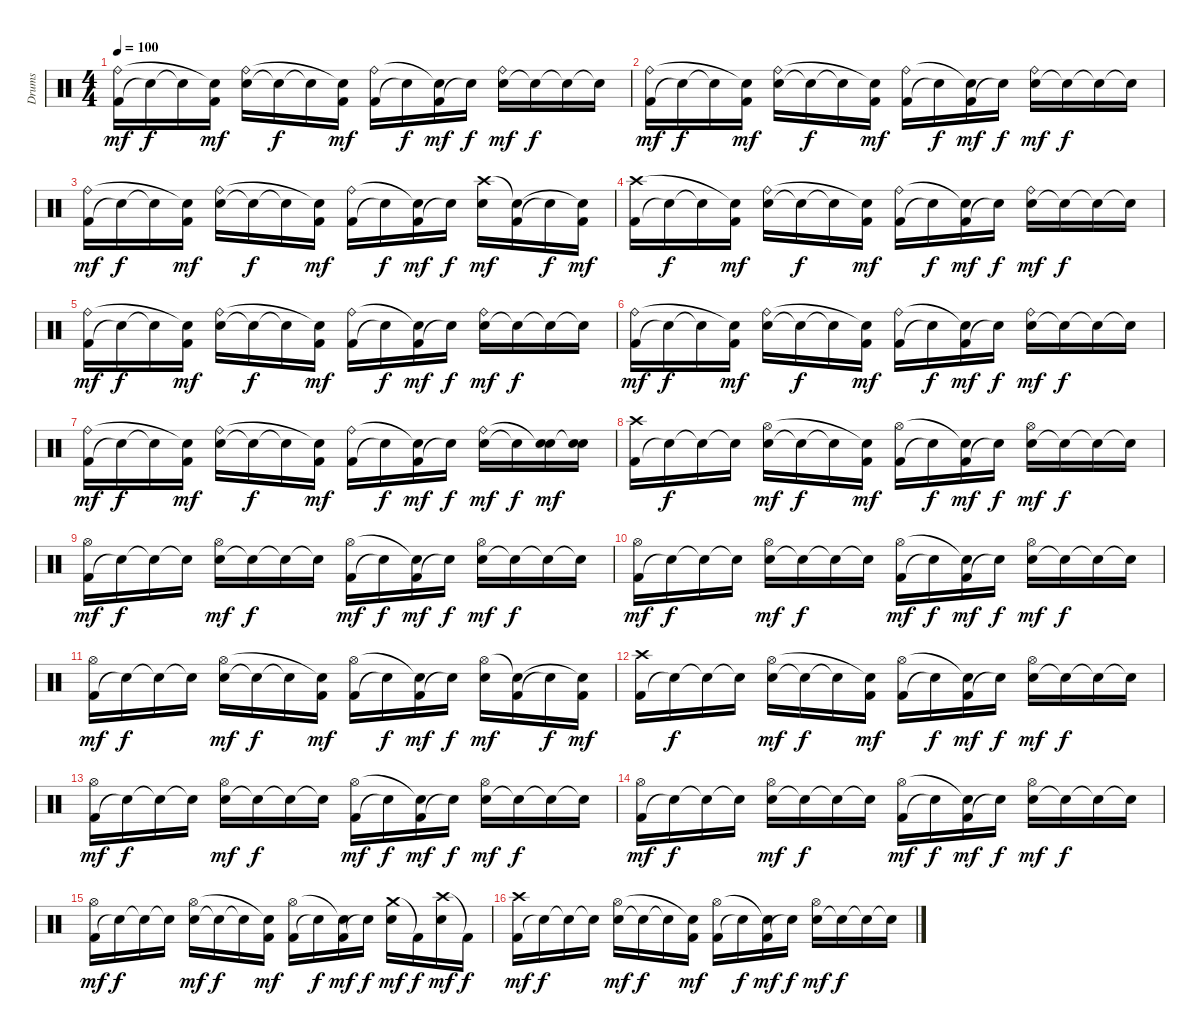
\track ("Drums" "Drums") {instrument percussion}
\staff {score}
\articulation defaults
\ts (4 4)
\tempo 100
\clef neutral
\ks c
("Kick (hit) 2" "Ride (bell)").16{dy mf} "Snare (hit)"{t}.16{dy f} "Snare (hit)"{t}.16 ("Kick (hit) 2" "Snare (hit)"{t}).16{dy mf} ("Snare (hit) 2" "Ride (bell)").16 "Snare (hit)"{t}.16{dy f} "Snare (hit)"{t}.16 ("Kick (hit) 2" "Snare (hit)"{t}).16{dy mf} ("Kick (hit) 2" "Ride (bell)").16 "Snare (hit)"{t}.16{dy f} ("Kick (hit) 2" "Snare (hit)"{t}).16{dy mf} "Snare (hit)"{t}.16{dy f} ("Snare (hit) 2" "Ride (bell)").16{dy mf} "Snare (hit)"{t}.16{dy f} "Snare (hit)"{t}.16 "Snare (hit)"{t}.16 |
("Kick (hit) 2" "Ride (bell)").16{dy mf} "Snare (hit)"{t}.16{dy f} "Snare (hit)"{t}.16 ("Kick (hit) 2" "Snare (hit)"{t}).16{dy mf} ("Snare (hit) 2" "Ride (bell)").16 "Snare (hit)"{t}.16{dy f} "Snare (hit)"{t}.16 ("Kick (hit) 2" "Snare (hit)"{t}).16{dy mf} ("Kick (hit) 2" "Ride (bell)").16 "Snare (hit)"{t}.16{dy f} ("Kick (hit) 2" "Snare (hit)"{t}).16{dy mf} "Snare (hit)"{t}.16{dy f} ("Snare (hit) 2" "Ride (bell)").16{dy mf} "Snare (hit)"{t}.16{dy f} "Snare (hit)"{t}.16 "Snare (hit)"{t}.16 |
("Kick (hit) 2" "Ride (bell)").16{dy mf} "Snare (hit)"{t}.16{dy f} "Snare (hit)"{t}.16 ("Kick (hit) 2" "Snare (hit)"{t}).16{dy mf} ("Snare (hit) 2" "Ride (bell)").16 "Snare (hit)"{t}.16{dy f} "Snare (hit)"{t}.16 ("Kick (hit) 2" "Snare (hit)"{t}).16{dy mf} ("Kick (hit) 2" "Ride (bell)").16 "Snare (hit)"{t}.16{dy f} ("Kick (hit) 2" "Snare (hit)"{t}).16{dy mf} "Snare (hit)"{t}.16{dy f} ("Snare (hit) 2" "Crash high (hit)").16{dy mf} ("Kick (hit) 2" "Snare (hit)"{t}).16 "Snare (hit)"{t}.16{dy f} ("Kick (hit) 2" "Snare (hit)"{t}).16{dy mf} |
("Kick (hit) 2" "Crash high (hit)").16 "Snare (hit)"{t}.16{dy f} "Snare (hit)"{t}.16 ("Kick (hit) 2" "Snare (hit)"{t}).16{dy mf} ("Snare (hit) 2" "Ride (bell)").16 "Snare (hit)"{t}.16{dy f} "Snare (hit)"{t}.16 ("Kick (hit) 2" "Snare (hit)"{t}).16{dy mf} ("Kick (hit) 2" "Ride (bell)").16 "Snare (hit)"{t}.16{dy f} ("Kick (hit) 2" "Snare (hit)"{t}).16{dy mf} "Snare (hit)"{t}.16{dy f} ("Snare (hit) 2" "Ride (bell)").16{dy mf} "Snare (hit)"{t}.16{dy f} "Snare (hit)"{t}.16 "Snare (hit)"{t}.16 |
("Kick (hit) 2" "Ride (bell)").16{dy mf} "Snare (hit)"{t}.16{dy f} "Snare (hit)"{t}.16 ("Kick (hit) 2" "Snare (hit)"{t}).16{dy mf} ("Snare (hit) 2" "Ride (bell)").16 "Snare (hit)"{t}.16{dy f} "Snare (hit)"{t}.16 ("Kick (hit) 2" "Snare (hit)"{t}).16{dy mf} ("Kick (hit) 2" "Ride (bell)").16 "Snare (hit)"{t}.16{dy f} ("Kick (hit) 2" "Snare (hit)"{t}).16{dy mf} "Snare (hit)"{t}.16{dy f} ("Snare (hit) 2" "Ride (bell)").16{dy mf} "Snare (hit)"{t}.16{dy f} "Snare (hit)"{t}.16 "Snare (hit)"{t}.16 |
("Kick (hit) 2" "Ride (bell)").16{dy mf} "Snare (hit)"{t}.16{dy f} "Snare (hit)"{t}.16 ("Kick (hit) 2" "Snare (hit)"{t}).16{dy mf} ("Snare (hit) 2" "Ride (bell)").16 "Snare (hit)"{t}.16{dy f} "Snare (hit)"{t}.16 ("Kick (hit) 2" "Snare (hit)"{t}).16{dy mf} ("Kick (hit) 2" "Ride (bell)").16 "Snare (hit)"{t}.16{dy f} ("Kick (hit) 2" "Snare (hit)"{t}).16{dy mf} "Snare (hit)"{t}.16{dy f} ("Snare (hit) 2" "Ride (bell)").16{dy mf} "Snare (hit)"{t}.16{dy f} "Snare (hit)"{t}.16 "Snare (hit)"{t}.16 |
("Kick (hit) 2" "Ride (bell)").16{dy mf} "Snare (hit)"{t}.16{dy f} "Snare (hit)"{t}.16 ("Kick (hit) 2" "Snare (hit)"{t}).16{dy mf} ("Snare (hit) 2" "Ride (bell)").16 "Snare (hit)"{t}.16{dy f} "Snare (hit)"{t}.16 ("Kick (hit) 2" "Snare (hit)"{t}).16{dy mf} ("Kick (hit) 2" "Ride (bell)").16 "Snare (hit)"{t}.16{dy f} ("Kick (hit) 2" "Snare (hit)"{t}).16{dy mf} "Snare (hit)"{t}.16{dy f} ("Snare (hit) 2" "Ride (bell)").16{dy mf} "Snare (hit)"{t}.16{dy f} ("Snare (hit) 2" "Snare (hit)"{t}).16{dy mf} ("Snare (hit) 2" "Snare (hit)"{t}).16 |
("Kick (hit) 2" "Crash high (hit)").16 "Snare (hit)"{t}.16{dy f} "Snare (hit)"{t}.16 "Snare (hit)"{t}.16 ("Snare (hit) 2" "Hi-Hat (open)").16{dy mf} "Snare (hit)"{t}.16{dy f} "Snare (hit)"{t}.16 ("Kick (hit) 2" "Snare (hit)"{t}).16{dy mf} ("Kick (hit) 2" "Hi-Hat (open)").16 "Snare (hit)"{t}.16{dy f} ("Kick (hit) 2" "Snare (hit)"{t}).16{dy mf} "Snare (hit)"{t}.16{dy f} ("Snare (hit) 2" "Hi-Hat (open)").16{dy mf} "Snare (hit)"{t}.16{dy f} "Snare (hit)"{t}.16 "Snare (hit)"{t}.16 |
("Kick (hit) 2" "Hi-Hat (open)").16{dy mf} "Snare (hit)"{t}.16{dy f} "Snare (hit)"{t}.16 "Snare (hit)"{t}.16 ("Snare (hit) 2" "Hi-Hat (open)").16{dy mf} "Snare (hit)"{t}.16{dy f} "Snare (hit)"{t}.16 "Snare (hit)"{t}.16 ("Kick (hit) 2" "Hi-Hat (open)").16{dy mf} "Snare (hit)"{t}.16{dy f} ("Kick (hit) 2" "Snare (hit)"{t}).16{dy mf} "Snare (hit)"{t}.16{dy f} ("Snare (hit) 2" "Hi-Hat (open)").16{dy mf} "Snare (hit)"{t}.16{dy f} "Snare (hit)"{t}.16 "Snare (hit)"{t}.16 |
("Kick (hit) 2" "Hi-Hat (open)").16{dy mf} "Snare (hit)"{t}.16{dy f} "Snare (hit)"{t}.16 "Snare (hit)"{t}.16 ("Snare (hit) 2" "Hi-Hat (open)").16{dy mf} "Snare (hit)"{t}.16{dy f} "Snare (hit)"{t}.16 "Snare (hit)"{t}.16 ("Kick (hit) 2" "Hi-Hat (open)").16{dy mf} "Snare (hit)"{t}.16{dy f} ("Kick (hit) 2" "Snare (hit)"{t}).16{dy mf} "Snare (hit)"{t}.16{dy f} ("Snare (hit) 2" "Hi-Hat (open)").16{dy mf} "Snare (hit)"{t}.16{dy f} "Snare (hit)"{t}.16 "Snare (hit)"{t}.16 |
("Kick (hit) 2" "Hi-Hat (open)").16{dy mf} "Snare (hit)"{t}.16{dy f} "Snare (hit)"{t}.16 "Snare (hit)"{t}.16 ("Snare (hit) 2" "Hi-Hat (open)").16{dy mf} "Snare (hit)"{t}.16{dy f} "Snare (hit)"{t}.16 ("Kick (hit) 2" "Snare (hit)"{t}).16{dy mf} ("Kick (hit) 2" "Hi-Hat (open)").16 "Snare (hit)"{t}.16{dy f} ("Kick (hit) 2" "Snare (hit)"{t}).16{dy mf} "Snare (hit)"{t}.16{dy f} ("Snare (hit) 2" "Hi-Hat (open)").16{dy mf} ("Kick (hit) 2" "Snare (hit)"{t}).16 "Snare (hit)"{t}.16{dy f} ("Kick (hit) 2" "Snare (hit)"{t}).16{dy mf} |
("Kick (hit) 2" "Crash high (hit)").16 "Snare (hit)"{t}.16{dy f} "Snare (hit)"{t}.16 "Snare (hit)"{t}.16 ("Snare (hit) 2" "Hi-Hat (open)").16{dy mf} "Snare (hit)"{t}.16{dy f} "Snare (hit)"{t}.16 ("Kick (hit) 2" "Snare (hit)"{t}).16{dy mf} ("Kick (hit) 2" "Hi-Hat (open)").16 "Snare (hit)"{t}.16{dy f} ("Kick (hit) 2" "Snare (hit)"{t}).16{dy mf} "Snare (hit)"{t}.16{dy f} ("Snare (hit) 2" "Hi-Hat (open)").16{dy mf} "Snare (hit)"{t}.16{dy f} "Snare (hit)"{t}.16 "Snare (hit)"{t}.16 |
("Kick (hit) 2" "Hi-Hat (open)").16{dy mf} "Snare (hit)"{t}.16{dy f} "Snare (hit)"{t}.16 "Snare (hit)"{t}.16 ("Snare (hit) 2" "Hi-Hat (open)").16{dy mf} "Snare (hit)"{t}.16{dy f} "Snare (hit)"{t}.16 "Snare (hit)"{t}.16 ("Kick (hit) 2" "Hi-Hat (open)").16{dy mf} "Snare (hit)"{t}.16{dy f} ("Kick (hit) 2" "Snare (hit)"{t}).16{dy mf} "Snare (hit)"{t}.16{dy f} ("Snare (hit) 2" "Hi-Hat (open)").16{dy mf} "Snare (hit)"{t}.16{dy f} "Snare (hit)"{t}.16 "Snare (hit)"{t}.16 |
("Kick (hit) 2" "Hi-Hat (open)").16{dy mf} "Snare (hit)"{t}.16{dy f} "Snare (hit)"{t}.16 "Snare (hit)"{t}.16 ("Snare (hit) 2" "Hi-Hat (open)").16{dy mf} "Snare (hit)"{t}.16{dy f} "Snare (hit)"{t}.16 "Snare (hit)"{t}.16 ("Kick (hit) 2" "Hi-Hat (open)").16{dy mf} "Snare (hit)"{t}.16{dy f} ("Kick (hit) 2" "Snare (hit)"{t}).16{dy mf} "Snare (hit)"{t}.16{dy f} ("Snare (hit) 2" "Hi-Hat (open)").16{dy mf} "Snare (hit)"{t}.16{dy f} "Snare (hit)"{t}.16 "Snare (hit)"{t}.16 |
("Kick (hit) 2" "Hi-Hat (open)").16{dy mf} "Snare (hit)"{t}.16{dy f} "Snare (hit)"{t}.16 "Snare (hit)"{t}.16 ("Snare (hit) 2" "Hi-Hat (open)").16{dy mf} "Snare (hit)"{t}.16{dy f} "Snare (hit)"{t}.16 ("Kick (hit) 2" "Snare (hit)"{t}).16{dy mf} ("Kick (hit) 2" "Hi-Hat (open)").16 "Snare (hit)"{t}.16{dy f} ("Kick (hit) 2" "Snare (hit)"{t}).16{dy mf} "Snare (hit)"{t}.16{dy f} ("Crash medium (hit)" "Snare (hit) 2").16{dy mf} "Kick (hit) 2"{t}.16{dy f} ("Crash high (hit)" "Snare (hit) 2").16{dy mf} "Kick (hit) 2"{t}.16{dy f} |
("Kick (hit) 2" "Crash high (hit)").16{dy mf} "Snare (hit)"{t}.16{dy f} "Snare (hit)"{t}.16 "Snare (hit)"{t}.16 ("Snare (hit) 2" "Hi-Hat (open)").16{dy mf} "Snare (hit)"{t}.16{dy f} "Snare (hit)"{t}.16 ("Kick (hit) 2" "Snare (hit)"{t}).16{dy mf} ("Kick (hit) 2" "Hi-Hat (open)").16 "Snare (hit)"{t}.16{dy f} ("Kick (hit) 2" "Snare (hit)"{t}).16{dy mf} "Snare (hit)"{t}.16{dy f} ("Snare (hit) 2" "Hi-Hat (open)").16{dy mf} "Snare (hit)"{t}.16{dy f} "Snare (hit)"{t}.16 "Snare (hit)"{t}.16
